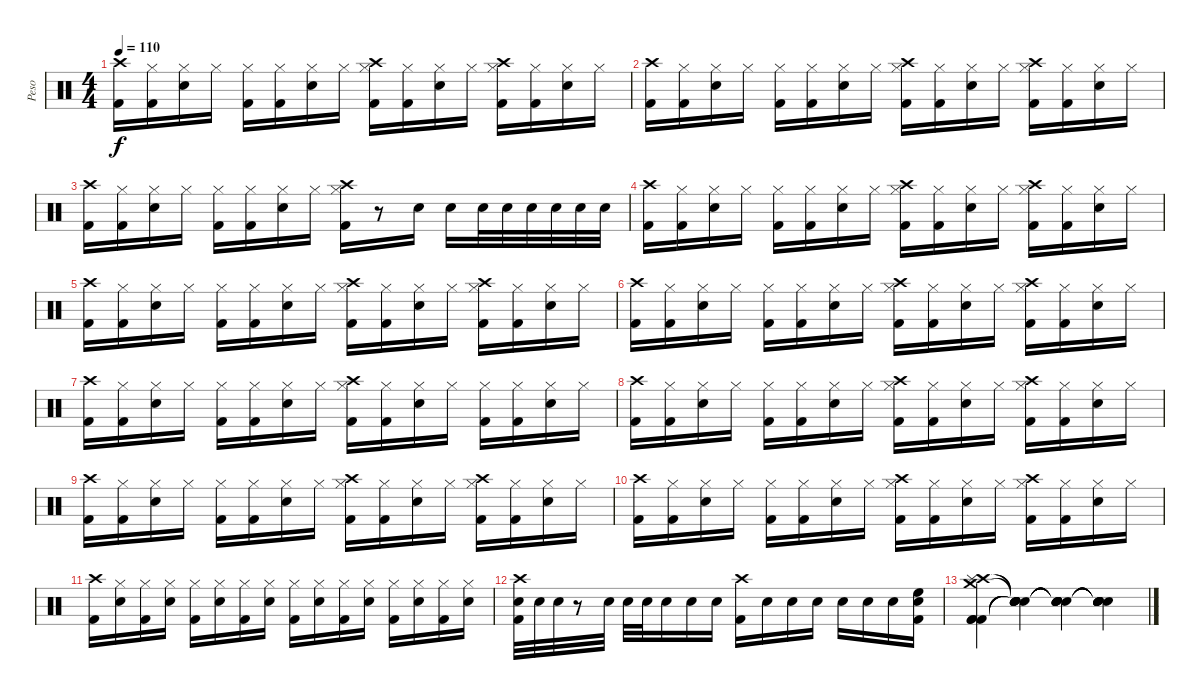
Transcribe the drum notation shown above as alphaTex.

\track ("Peso" "Peso") {instrument percussion}
\staff {score}
\articulation defaults
\ts (4 4)
\tempo 110
\clef neutral
\ks c
("Crash high (hit)" "Kick (hit) 2").16{dy f} ("Hi-Hat (closed)" "Kick (hit) 2").16 ("Hi-Hat (closed)" "Snare (hit) 2").16 "Hi-Hat (closed)".16 ("Hi-Hat (closed)" "Kick (hit) 2").16 ("Hi-Hat (closed)" "Kick (hit) 2").16 ("Hi-Hat (closed)" "Snare (hit) 2").16 "Hi-Hat (closed)".16 ("Crash high (hit)" "Hi-Hat (closed)" "Kick (hit) 2").16 ("Hi-Hat (closed)" "Kick (hit) 2").16 ("Hi-Hat (closed)" "Snare (hit) 2").16 "Hi-Hat (closed)".16 ("Crash high (hit)" "Hi-Hat (closed)" "Kick (hit) 2").16 ("Hi-Hat (closed)" "Kick (hit) 2").16 ("Hi-Hat (closed)" "Snare (hit) 2").16 "Hi-Hat (closed)".16 |
("Crash high (hit)" "Kick (hit) 2").16 ("Hi-Hat (closed)" "Kick (hit) 2").16 ("Hi-Hat (closed)" "Snare (hit) 2").16 "Hi-Hat (closed)".16 ("Hi-Hat (closed)" "Kick (hit) 2").16 ("Hi-Hat (closed)" "Kick (hit) 2").16 ("Hi-Hat (closed)" "Snare (hit) 2").16 "Hi-Hat (closed)".16 ("Crash high (hit)" "Hi-Hat (closed)" "Kick (hit) 2").16 ("Hi-Hat (closed)" "Kick (hit) 2").16 ("Hi-Hat (closed)" "Snare (hit) 2").16 "Hi-Hat (closed)".16 ("Crash high (hit)" "Hi-Hat (closed)" "Kick (hit) 2").16 ("Hi-Hat (closed)" "Kick (hit) 2").16 ("Hi-Hat (closed)" "Snare (hit) 2").16 "Hi-Hat (closed)".16 |
("Crash high (hit)" "Kick (hit) 2").16 ("Hi-Hat (closed)" "Kick (hit) 2").16 ("Hi-Hat (closed)" "Snare (hit) 2").16 "Hi-Hat (closed)".16 ("Hi-Hat (closed)" "Kick (hit) 2").16 ("Hi-Hat (closed)" "Kick (hit) 2").16 ("Hi-Hat (closed)" "Snare (hit) 2").16 "Hi-Hat (closed)".16 ("Crash high (hit)" "Hi-Hat (closed)" "Kick (hit) 2").16 r.8 "Snare (hit) 2"{x}.16 "Snare (hit) 2"{x}.16 "Snare (hit) 2"{x}.32 "Snare (hit) 2".32 "Snare (hit) 2".32 "Snare (hit) 2".32 "Snare (hit) 2".32 "Snare (hit) 2".32 |
("Crash high (hit)" "Kick (hit) 2").16 ("Hi-Hat (closed)" "Kick (hit) 2").16 ("Hi-Hat (closed)" "Snare (hit) 2").16 "Hi-Hat (closed)".16 ("Hi-Hat (closed)" "Kick (hit) 2").16 ("Hi-Hat (closed)" "Kick (hit) 2").16 ("Hi-Hat (closed)" "Snare (hit) 2").16 "Hi-Hat (closed)".16 ("Crash high (hit)" "Hi-Hat (closed)" "Kick (hit) 2").16 ("Hi-Hat (closed)" "Kick (hit) 2").16 ("Hi-Hat (closed)" "Snare (hit) 2").16 "Hi-Hat (closed)".16 ("Crash high (hit)" "Hi-Hat (closed)" "Kick (hit) 2").16 ("Hi-Hat (closed)" "Kick (hit) 2").16 ("Hi-Hat (closed)" "Snare (hit) 2").16 "Hi-Hat (closed)".16 |
("Crash high (hit)" "Kick (hit) 2").16 ("Hi-Hat (closed)" "Kick (hit) 2").16 ("Hi-Hat (closed)" "Snare (hit) 2").16 "Hi-Hat (closed)".16 ("Hi-Hat (closed)" "Kick (hit) 2").16 ("Hi-Hat (closed)" "Kick (hit) 2").16 ("Hi-Hat (closed)" "Snare (hit) 2").16 "Hi-Hat (closed)".16 ("Crash high (hit)" "Hi-Hat (closed)" "Kick (hit) 2").16 ("Hi-Hat (closed)" "Kick (hit) 2").16 ("Hi-Hat (closed)" "Snare (hit) 2").16 "Hi-Hat (closed)".16 ("Crash high (hit)" "Hi-Hat (closed)" "Kick (hit) 2").16 ("Hi-Hat (closed)" "Kick (hit) 2").16 ("Hi-Hat (closed)" "Snare (hit) 2").16 "Hi-Hat (closed)".16 |
("Crash high (hit)" "Kick (hit) 2").16 ("Hi-Hat (closed)" "Kick (hit) 2").16 ("Hi-Hat (closed)" "Snare (hit) 2").16 "Hi-Hat (closed)".16 ("Hi-Hat (closed)" "Kick (hit) 2").16 ("Hi-Hat (closed)" "Kick (hit) 2").16 ("Hi-Hat (closed)" "Snare (hit) 2").16 "Hi-Hat (closed)".16 ("Crash high (hit)" "Hi-Hat (closed)" "Kick (hit) 2").16 ("Hi-Hat (closed)" "Kick (hit) 2").16 ("Hi-Hat (closed)" "Snare (hit) 2").16 "Hi-Hat (closed)".16 ("Crash high (hit)" "Hi-Hat (closed)" "Kick (hit) 2").16 ("Hi-Hat (closed)" "Kick (hit) 2").16 ("Hi-Hat (closed)" "Snare (hit) 2").16 "Hi-Hat (closed)".16 |
("Crash high (hit)" "Kick (hit) 2").16 ("Hi-Hat (closed)" "Kick (hit) 2").16 ("Hi-Hat (closed)" "Snare (hit) 2").16 "Hi-Hat (closed)".16 ("Hi-Hat (closed)" "Kick (hit) 2").16 ("Hi-Hat (closed)" "Kick (hit) 2").16 ("Hi-Hat (closed)" "Snare (hit) 2").16 "Hi-Hat (closed)".16 ("Crash high (hit)" "Hi-Hat (closed)" "Kick (hit) 2").16 ("Hi-Hat (closed)" "Kick (hit) 2").16 ("Hi-Hat (closed)" "Snare (hit) 2").16 "Hi-Hat (closed)".16 ("Hi-Hat (closed)" "Kick (hit) 2").16 ("Hi-Hat (closed)" "Kick (hit) 2").16 ("Hi-Hat (closed)" "Snare (hit) 2").16 "Hi-Hat (closed)".16 |
("Crash high (hit)" "Kick (hit) 2").16 ("Hi-Hat (closed)" "Kick (hit) 2").16 ("Hi-Hat (closed)" "Snare (hit) 2").16 "Hi-Hat (closed)".16 ("Hi-Hat (closed)" "Kick (hit) 2").16 ("Hi-Hat (closed)" "Kick (hit) 2").16 ("Hi-Hat (closed)" "Snare (hit) 2").16 "Hi-Hat (closed)".16 ("Crash high (hit)" "Hi-Hat (closed)" "Kick (hit) 2").16 ("Hi-Hat (closed)" "Kick (hit) 2").16 ("Hi-Hat (closed)" "Snare (hit) 2").16 "Hi-Hat (closed)".16 ("Crash high (hit)" "Hi-Hat (closed)" "Kick (hit) 2").16 ("Hi-Hat (closed)" "Kick (hit) 2").16 ("Hi-Hat (closed)" "Snare (hit) 2").16 "Hi-Hat (closed)".16 |
("Crash high (hit)" "Kick (hit) 2").16 ("Hi-Hat (closed)" "Kick (hit) 2").16 ("Hi-Hat (closed)" "Snare (hit) 2").16 "Hi-Hat (closed)".16 ("Hi-Hat (closed)" "Kick (hit) 2").16 ("Hi-Hat (closed)" "Kick (hit) 2").16 ("Hi-Hat (closed)" "Snare (hit) 2").16 "Hi-Hat (closed)".16 ("Crash high (hit)" "Hi-Hat (closed)" "Kick (hit) 2").16 ("Hi-Hat (closed)" "Kick (hit) 2").16 ("Hi-Hat (closed)" "Snare (hit) 2").16 "Hi-Hat (closed)".16 ("Crash high (hit)" "Hi-Hat (closed)" "Kick (hit) 2").16 ("Hi-Hat (closed)" "Kick (hit) 2").16 ("Hi-Hat (closed)" "Snare (hit) 2").16 "Hi-Hat (closed)".16 |
("Crash high (hit)" "Kick (hit) 2").16 ("Hi-Hat (closed)" "Kick (hit) 2").16 ("Hi-Hat (closed)" "Snare (hit) 2").16 "Hi-Hat (closed)".16 ("Hi-Hat (closed)" "Kick (hit) 2").16 ("Hi-Hat (closed)" "Kick (hit) 2").16 ("Hi-Hat (closed)" "Snare (hit) 2").16 "Hi-Hat (closed)".16 ("Crash high (hit)" "Hi-Hat (closed)" "Kick (hit) 2").16 ("Hi-Hat (closed)" "Kick (hit) 2").16 ("Hi-Hat (closed)" "Snare (hit) 2").16 "Hi-Hat (closed)".16 ("Crash high (hit)" "Hi-Hat (closed)" "Kick (hit) 2").16 ("Hi-Hat (closed)" "Kick (hit) 2").16 ("Hi-Hat (closed)" "Snare (hit) 2").16 "Hi-Hat (closed)".16 |
("Crash high (hit)" "Kick (hit) 2").16 ("Hi-Hat (closed)" "Snare (hit) 2").16 ("Hi-Hat (closed)" "Kick (hit) 2").16 ("Hi-Hat (closed)" "Snare (hit) 2").16 ("Hi-Hat (closed)" "Kick (hit) 2").16 ("Hi-Hat (closed)" "Snare (hit) 2").16 ("Hi-Hat (closed)" "Kick (hit) 2").16 ("Hi-Hat (closed)" "Snare (hit) 2").16 ("Hi-Hat (closed)" "Kick (hit) 2").16 ("Hi-Hat (closed)" "Snare (hit) 2").16 ("Hi-Hat (closed)" "Kick (hit) 2").16 ("Hi-Hat (closed)" "Snare (hit) 2").16 ("Hi-Hat (closed)" "Kick (hit) 2").16 ("Hi-Hat (closed)" "Snare (hit) 2").16 ("Hi-Hat (closed)" "Kick (hit) 2").16 ("Hi-Hat (closed)" "Snare (hit) 2").16 |
("Crash high (hit)" "Snare (hit) 2"{x} "Kick (hit) 2").32 "Snare (hit) 2"{x}.32 "Snare (hit) 2"{x}.32 r.8 "Snare (hit) 2"{x}.32 "Snare (hit) 2"{x}.32 "Snare (hit) 2"{x}.32 "Snare (hit)"{x}.16 "Snare (hit)"{x}.16 "Snare (hit) 2"{x}.16 ("Crash high (hit)"{x} "Kick (hit) 2"{x}).16 "Snare (hit)"{x}.16 "Snare (hit)"{x}.16 "Snare (hit)"{x}.16 "Snare (hit)"{x}.16 "Snare (hit)"{x}.16 "Snare (hit)"{x}.16 ("High Floor Tom (hit)" "Snare (hit) 2" "Kick (hit) 2").16 |
("Crash high (hit)" "Splash (hit)" "Crash medium (hit)" "Kick (hit) 2" "Kick (hit) 2" "Kick (hit) 2").4 ("Snare (hit)"{t} "Snare (hit)"{t} "Snare (hit)"{t} "Snare (hit)"{t} "Snare (hit)"{t} "Snare (hit)"{t}).4 ("Snare (hit)"{t} "Snare (hit)"{t} "Snare (hit)"{t} "Snare (hit)"{t} "Snare (hit)"{t} "Snare (hit)"{t}).4 ("Snare (hit)"{t} "Snare (hit)"{t} "Snare (hit)"{t} "Snare (hit)"{t} "Snare (hit)"{t} "Snare (hit)"{t}).4
